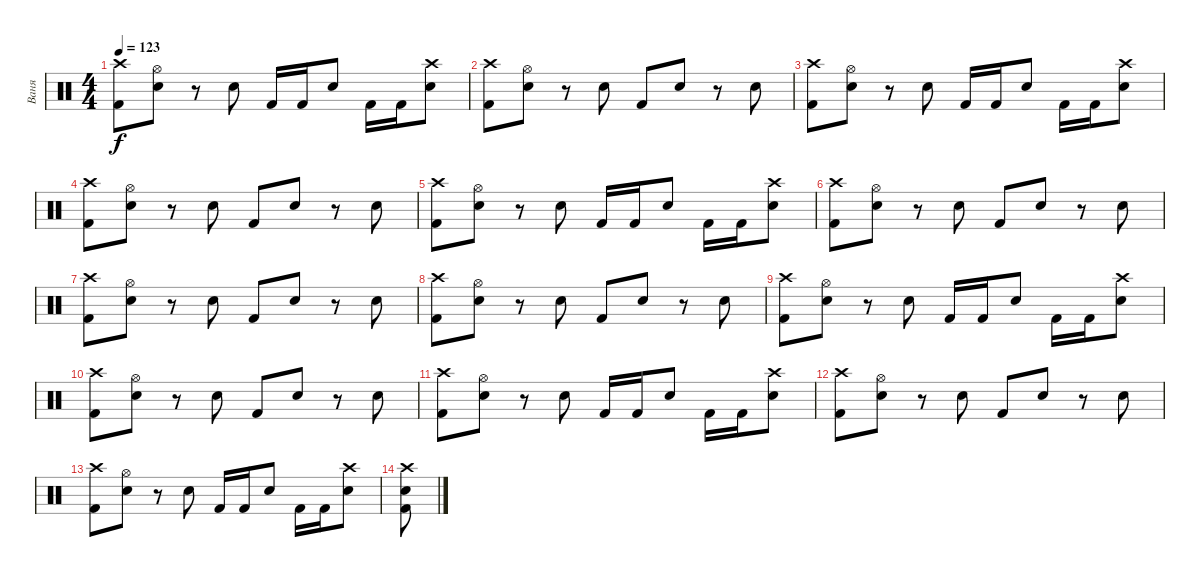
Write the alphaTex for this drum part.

\track ("Ваня" "Ваня") {instrument percussion}
\staff {score}
\articulation defaults
\ts (4 4)
\tempo 123
\clef neutral
\ks c
("Crash high (hit)" "Kick (hit) 2").8{dy f} ("Hi-Hat (open)" "Snare (hit) 2").8 r.8 "Snare (hit) 2".8 "Kick (hit) 2".16 "Kick (hit) 2".16 "Snare (hit) 2".8 "Kick (hit) 2".16 "Kick (hit) 2".16 ("Crash high (hit)" "Snare (hit) 2").8 |
("Crash high (hit)" "Kick (hit) 2").8 ("Hi-Hat (open)" "Snare (hit) 2").8 r.8 "Snare (hit) 2".8 "Kick (hit) 2".8 "Snare (hit) 2".8 r.8 "Snare (hit) 2".8 |
("Crash high (hit)" "Kick (hit) 2").8 ("Hi-Hat (open)" "Snare (hit) 2").8 r.8 "Snare (hit) 2".8 "Kick (hit) 2".16 "Kick (hit) 2".16 "Snare (hit) 2".8 "Kick (hit) 2".16 "Kick (hit) 2".16 ("Crash high (hit)" "Snare (hit) 2").8 |
("Crash high (hit)" "Kick (hit) 2").8 ("Hi-Hat (open)" "Snare (hit) 2").8 r.8 "Snare (hit) 2".8 "Kick (hit) 2".8 "Snare (hit) 2".8 r.8 "Snare (hit) 2".8 |
("Crash high (hit)" "Kick (hit) 2").8 ("Hi-Hat (open)" "Snare (hit) 2").8 r.8 "Snare (hit) 2".8 "Kick (hit) 2".16 "Kick (hit) 2".16 "Snare (hit) 2".8 "Kick (hit) 2".16 "Kick (hit) 2".16 ("Crash high (hit)" "Snare (hit) 2").8 |
("Crash high (hit)" "Kick (hit) 2").8 ("Hi-Hat (open)" "Snare (hit) 2").8 r.8 "Snare (hit) 2".8 "Kick (hit) 2".8 "Snare (hit) 2".8 r.8 "Snare (hit) 2".8 |
("Crash high (hit)" "Kick (hit) 2").8 ("Hi-Hat (open)" "Snare (hit) 2").8 r.8 "Snare (hit) 2".8 "Kick (hit) 2".8 "Snare (hit) 2".8 r.8 "Snare (hit) 2".8 |
("Crash high (hit)" "Kick (hit) 2").8 ("Hi-Hat (open)" "Snare (hit) 2").8 r.8 "Snare (hit) 2".8 "Kick (hit) 2".8 "Snare (hit) 2".8 r.8 "Snare (hit) 2".8 |
("Crash high (hit)" "Kick (hit) 2").8 ("Hi-Hat (open)" "Snare (hit) 2").8 r.8 "Snare (hit) 2".8 "Kick (hit) 2".16 "Kick (hit) 2".16 "Snare (hit) 2".8 "Kick (hit) 2".16 "Kick (hit) 2".16 ("Crash high (hit)" "Snare (hit) 2").8 |
("Crash high (hit)" "Kick (hit) 2").8 ("Hi-Hat (open)" "Snare (hit) 2").8 r.8 "Snare (hit) 2".8 "Kick (hit) 2".8 "Snare (hit) 2".8 r.8 "Snare (hit) 2".8 |
("Crash high (hit)" "Kick (hit) 2").8 ("Hi-Hat (open)" "Snare (hit) 2").8 r.8 "Snare (hit) 2".8 "Kick (hit) 2".16 "Kick (hit) 2".16 "Snare (hit) 2".8 "Kick (hit) 2".16 "Kick (hit) 2".16 ("Crash high (hit)" "Snare (hit) 2").8 |
("Crash high (hit)" "Kick (hit) 2").8 ("Hi-Hat (open)" "Snare (hit) 2").8 r.8 "Snare (hit) 2".8 "Kick (hit) 2".8 "Snare (hit) 2".8 r.8 "Snare (hit) 2".8 |
("Crash high (hit)" "Kick (hit) 2").8 ("Hi-Hat (open)" "Snare (hit) 2").8 r.8 "Snare (hit) 2".8 "Kick (hit) 2".16 "Kick (hit) 2".16 "Snare (hit) 2".8 "Kick (hit) 2".16 "Kick (hit) 2".16 ("Crash high (hit)" "Snare (hit) 2").8 |
("Crash high (hit)" "Kick (hit) 2" "Snare (hit) 2").8
